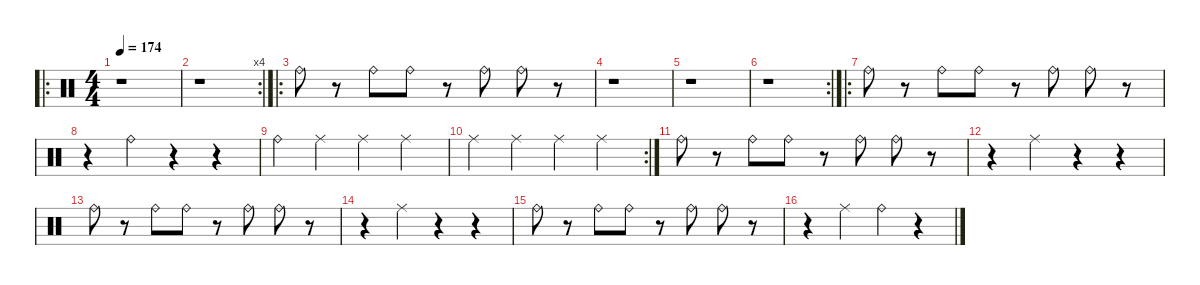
\defaultSystemsLayout 4
\hideDynamics
\bracketExtendMode nobrackets
\singleTrackTrackNamePolicy hidden
\multiTrackTrackNamePolicy hidden
\firstSystemTrackNameMode fullname
\firstSystemTrackNameOrientation horizontal
\otherSystemsTrackNameOrientation horizontal
\track ("Drums" "drm.") {instrument percussion}
\staff {score}
\articulation defaults
\ro
\ts (4 4)
\beaming (8 2 2 2 2)
\tempo 174
\clef neutral
\ks c
r.1{dy f beam Down} |
\rc 4
r.1{beam Down} |
\ro "Ride (bell)".8{beam Down}
r.8{beam Down} "Ride (bell)".8{beam Down} "Ride (bell)".8{beam Down} r.8{beam Down} "Ride (bell)".8{beam Down} "Ride (bell)".8{beam Down} r.8{beam Down} |
r.1{beam Down} |
r.1{beam Down} |
\rc 2
r.1{beam Down} |
\ro "Ride (bell)".8{beam Down}
r.8{beam Down} "Ride (bell)".8{beam Down} "Ride (bell)".8{beam Down} r.8{beam Down} "Ride (bell)".8{beam Down} "Ride (bell)".8{beam Down} r.8{beam Down} |
r.4{beam Down} "Ride (bell)".4{beam Down} r.4{beam Down} r.4{beam Down} |
"Ride (bell)".4{beam Down} "Ride (middle)".4{beam Down} "Ride (middle)".4{beam Down} "Ride (middle)".4{beam Down} |
\rc 2 "Ride (middle)".4{beam Down} "Ride (middle)".4{beam Down} "Ride (middle)".4{beam Down} "Ride (middle)".4{beam Down}
|
"Ride (bell)".8{beam Down} r.8{beam Down} "Ride (bell)".8{beam Down} "Ride (bell)".8{beam Down} r.8{beam Down} "Ride (bell)".8{beam Down} "Ride (bell)".8{beam Down} r.8{beam Down} |
r.4{beam Down} "Ride (middle)".4{beam Down} r.4{beam Down} r.4{beam Down} |
"Ride (bell)".8{beam Down} r.8{beam Down} "Ride (bell)".8{beam Down} "Ride (bell)".8{beam Down} r.8{beam Down} "Ride (bell)".8{beam Down} "Ride (bell)".8{beam Down} r.8{beam Down} |
r.4{beam Down} "Ride (middle)".4{beam Down} r.4{beam Down} r.4{beam Down} |
"Ride (bell)".8{beam Down} r.8{beam Down} "Ride (bell)".8{beam Down} "Ride (bell)".8{beam Down} r.8{beam Down} "Ride (bell)".8{beam Down} "Ride (bell)".8{beam Down} r.8{beam Down} |
r.4{beam Down} "Ride (middle)".4{beam Down} "Ride (bell)".4{beam Down} r.4{beam Down}
